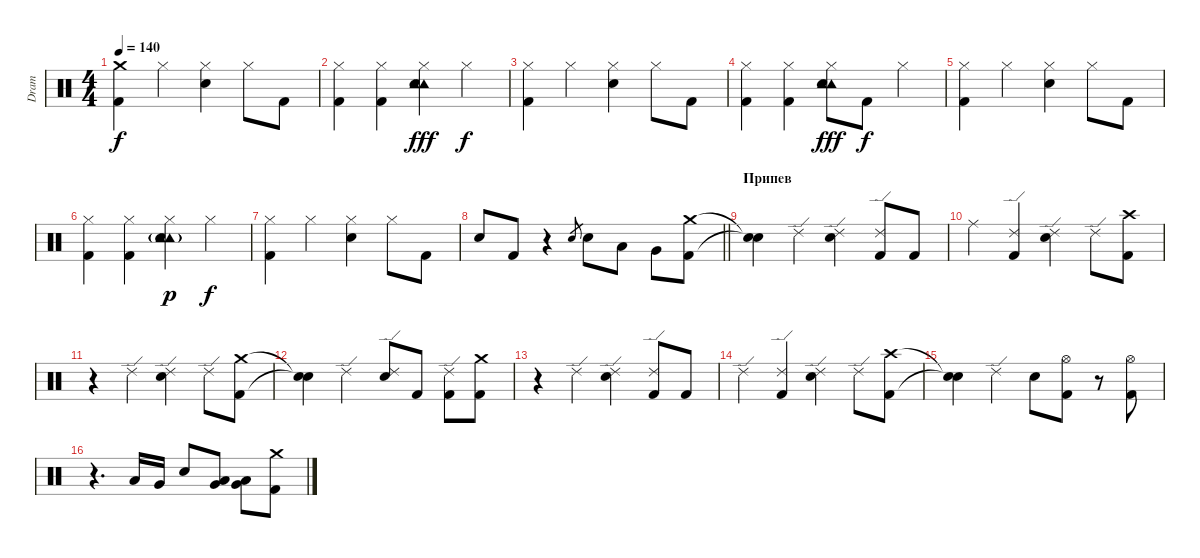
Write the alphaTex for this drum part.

\track ("Dram" "Dram") {instrument percussion}
\staff {score}
\articulation defaults
\ts (4 4)
\tempo 140
\clef neutral
\ks c
("Crash medium (hit)" "Kick (hit) 2").4{dy f} "Hi-Hat (closed)".4 ("Hi-Hat (closed)" "Snare (hit) 2").4 "Hi-Hat (closed)".8 "Kick (hit) 2".8 |
("Hi-Hat (closed)" "Kick (hit) 2").4 ("Kick (hit) 2" "Hi-Hat (closed)").4 ("Tambourine (hit)" "Tambourine (hit)" "Snare (hit) 2" "Hi-Hat (closed)").4{dy fff} "Hi-Hat (closed)".4{dy f} |
("Kick (hit) 2" "Hi-Hat (closed)").4 "Hi-Hat (closed)".4 ("Hi-Hat (closed)" "Snare (hit) 2").4 "Hi-Hat (closed)".8 "Kick (hit) 2".8 |
("Hi-Hat (closed)" "Kick (hit) 2").4 ("Kick (hit) 2" "Hi-Hat (closed)").4 ("Tambourine (hit)" "Tambourine (hit)" "Snare (hit) 2" "Hi-Hat (closed)").8{dy fff} "Kick (hit) 2".8{dy f} "Hi-Hat (closed)".4 |
("Kick (hit) 2" "Hi-Hat (closed)").4 "Hi-Hat (closed)".4 ("Hi-Hat (closed)" "Snare (hit) 2").4 "Hi-Hat (closed)".8 "Kick (hit) 2".8 |
("Hi-Hat (closed)" "Kick (hit) 2").4 ("Kick (hit) 2" "Hi-Hat (closed)").4 ("Tambourine (hit)"{g} "Snare (hit) 2" "Tambourine (hit)"{g} "Hi-Hat (closed)").4{dy p} "Hi-Hat (closed)".4{dy f} |
("Hi-Hat (closed)" "Kick (hit) 2").4 "Hi-Hat (closed)".4 ("Snare (hit) 2" "Hi-Hat (closed)").4 "Hi-Hat (closed)".8 "Kick (hit) 2".8 |
\barLineRight lightlight "Snare (hit) 2".8 "Kick (hit) 2".8
r.4 "Snare (hit) 2".8{gr} "Snare (hit) 2".8 "Low Tom (hit)".8 "Very Low Tom (hit)".8 ("Crash medium (hit)" "Kick (hit) 2").8 |
\section ("" "Припев")
("Snare (hit)"{t} "Snare (hit)"{t}).4 "Ride (edge) 2".4 ("Snare (hit) 2" "Ride (edge) 2").4 ("Kick (hit) 2" "Ride (edge) 2").8 "Kick (hit) 2".8 |
"Ride (middle)".4 ("Kick (hit) 2" "Ride (edge) 2").4 ("Snare (hit) 2" "Ride (edge) 2").4 "Ride (edge) 2".8 ("Crash high (hit)" "Kick (hit) 2").8 |
r.4 "Ride (edge) 2".4 ("Snare (hit) 2" "Ride (edge) 2").4 "Ride (edge) 2".8 ("Crash medium (hit)" "Kick (hit) 2").8 |
("Snare (hit)"{t} "Snare (hit)"{t}).4 "Ride (edge) 2".4 ("Snare (hit) 2" "Ride (edge) 2").8 "Kick (hit) 2".8 ("Ride (edge) 2" "Kick (hit) 2").8 ("Crash medium (hit)" "Kick (hit) 2").8 |
r.4 "Ride (edge) 2".4 ("Snare (hit) 2" "Ride (edge) 2").4 ("Kick (hit) 2" "Ride (edge) 2").8 "Kick (hit) 2".8 |
"Ride (edge) 2".4 ("Kick (hit) 2" "Ride (edge) 2").4 ("Snare (hit) 2" "Ride (edge) 2").4 "Ride (edge) 2".8 ("Crash high (hit)" "Kick (hit) 2").8 |
("Snare (hit)"{t} "Snare (hit)"{t}).4 "Ride (edge) 2".4 "Snare (hit) 2".8 ("Hi-Hat (open)" "Kick (hit) 2").8 r.8 ("Hi-Hat (open)" "Kick (hit) 2").8 |
r.4{d} "Low Tom (hit)".16 "Very Low Tom (hit)".16 "Snare (hit) 2".8 ("Very Low Tom (hit)" "Low Tom (hit)").8 ("Very Low Tom (hit)" "Low Floor Tom (hit)").8 ("Crash medium (hit)" "Kick (hit) 2").8
